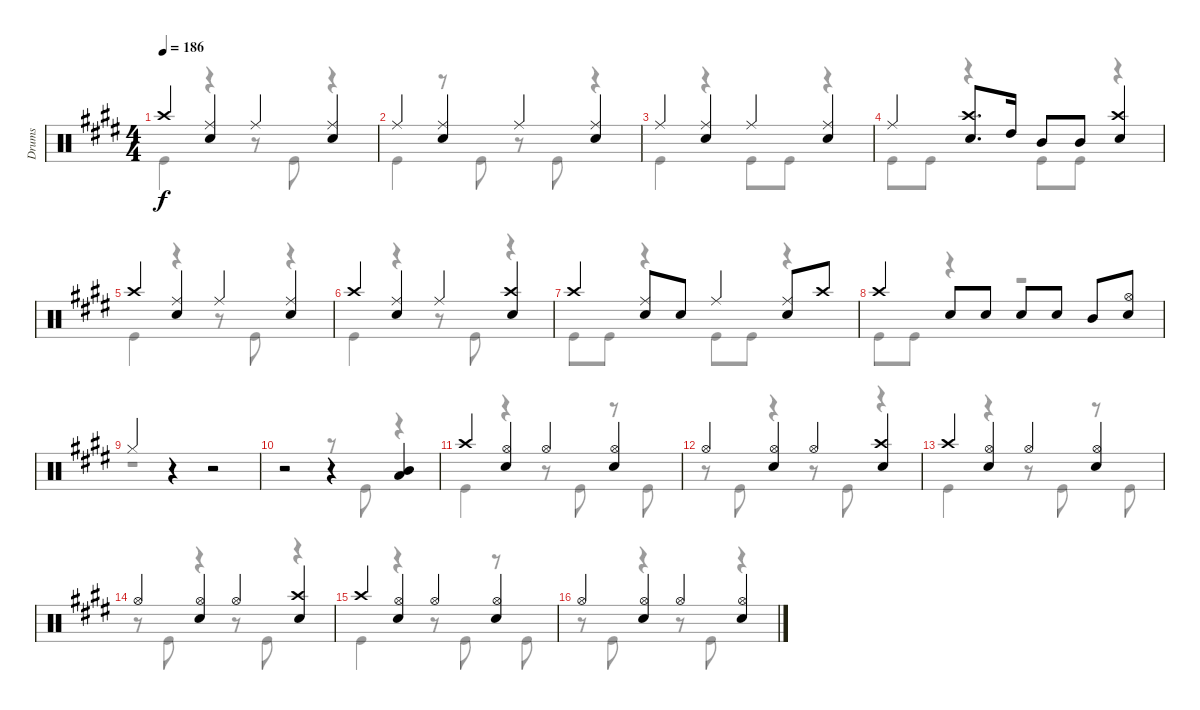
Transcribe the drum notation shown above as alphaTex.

\track ("Drums" "Drums") {instrument percussion}
\staff {score}
\articulation defaults
\voice
\ts (4 4)
\tempo 186
\clef neutral
\ks e "Crash high (hit)".4{dy f beam Up}
("Ride (middle)" "Snare (hit) 2").4{beam Up} "Ride (middle)".4{beam Up} ("Ride (middle)" "Snare (hit) 2").4{beam Up} |
"Ride (middle)".4{beam Up} ("Ride (middle)" "Snare (hit) 2").4{beam Up} "Ride (middle)".4{beam Up} ("Ride (middle)" "Snare (hit) 2").4{beam Up} |
"Ride (middle)".4{beam Up} ("Ride (middle)" "Snare (hit) 2").4{beam Up} "Ride (middle)".4{beam Up} ("Ride (middle)" "Snare (hit) 2").4{beam Up} |
"Ride (middle)".4{beam Up} ("Crash high (hit)" "Snare (hit) 2").8{d beam Up} "High Tom (hit)".16{beam Up} "Mid Tom (hit)".8{beam Up} "Mid Tom (hit)".8{beam Up} ("Crash high (hit)" "Snare (hit) 2").4{beam Up} |
"Crash high (hit)".4{beam Up} ("Ride (middle)" "Snare (hit) 2").4{beam Up} "Ride (middle)".4{beam Up} ("Ride (middle)" "Snare (hit) 2").4{beam Up} |
"Crash high (hit)".4{beam Up} ("Ride (middle)" "Snare (hit) 2").4{beam Up} "Ride (middle)".4{beam Up} ("Crash high (hit)" "Snare (hit) 2").4{beam Up} |
"Crash high (hit)".4{beam Up} ("Ride (middle)" "Snare (hit) 2").8{beam Up} "Snare (hit) 2".8{beam Up} "Ride (middle)".4{beam Up} ("Ride (middle)" "Snare (hit) 2").8{beam Up} "Crash high (hit)".8{beam Up} |
"Crash high (hit)".4{beam Up} "Snare (hit) 2".8{beam Up} "Snare (hit) 2".8{beam Up} "Snare (hit) 2".8{beam Up} "Snare (hit) 2".8{beam Up} "Mid Tom (hit)".8{beam Up} ("Snare (hit) 2" "Hi-Hat (open)").8{beam Up} |
"Hi-Hat (closed)".4{beam Up} r.4 r.2 |
r.2 r.4 ("Mid Tom (hit)" "Low Tom (hit)").4{beam Up} |
"Crash high (hit)".4{beam Up} ("Hi-Hat (open)" "Snare (hit) 2").4{beam Up} "Hi-Hat (open)".4{beam Up} ("Hi-Hat (open)" "Snare (hit) 2").4{beam Up} |
"Hi-Hat (open)".4{beam Up} ("Hi-Hat (open)" "Snare (hit) 2").4{beam Up} "Hi-Hat (open)".4{beam Up} ("Crash high (hit)" "Snare (hit) 2").4{beam Up} |
"Crash high (hit)".4{beam Up} ("Hi-Hat (open)" "Snare (hit) 2").4{beam Up} "Hi-Hat (open)".4{beam Up} ("Hi-Hat (open)" "Snare (hit) 2").4{beam Up} |
"Hi-Hat (open)".4{beam Up} ("Hi-Hat (open)" "Snare (hit) 2").4{beam Up} "Hi-Hat (open)".4{beam Up} ("Crash high (hit)" "Snare (hit) 2").4{beam Up} |
"Crash high (hit)".4{beam Up} ("Hi-Hat (open)" "Snare (hit) 2").4{beam Up} "Hi-Hat (open)".4{beam Up} ("Hi-Hat (open)" "Snare (hit) 2").4{beam Up} |
"Hi-Hat (open)".4{beam Up} ("Hi-Hat (open)" "Snare (hit) 2").4{beam Up} "Hi-Hat (open)".4{beam Up} ("Hi-Hat (open)" "Snare (hit) 2").4{beam Up}
\voice
\clef neutral
\ottava regular
\simile none
\ks e "Kick (hit)".4{dy f}
r.4 r.8 "Kick (hit)".8 r.4 |
"Kick (hit)".4 r.8 "Kick (hit)".8 r.8 "Kick (hit)".8 r.4 |
"Kick (hit)".4 r.4 "Kick (hit)".8 "Kick (hit)".8 r.4 |
"Kick (hit)".8 "Kick (hit)".8 r.4 "Kick (hit)".8 "Kick (hit)".8 r.4 |
"Kick (hit)".4 r.4 r.8 "Kick (hit)".8 r.4 |
"Kick (hit)".4 r.4 r.8 "Kick (hit)".8 r.4 |
"Kick (hit)".8 "Kick (hit)".8 r.4 "Kick (hit)".8 "Kick (hit)".8 r.4 |
"Kick (hit)".8 "Kick (hit)".8 r.4 r.2 |
r.1 |
r.2 r.8 "Kick (hit)".8 r.4 |
"Kick (hit)".4 r.4 r.8 "Kick (hit)".8 r.8 "Kick (hit)".8 |
r.8 "Kick (hit)".8 r.4 r.8 "Kick (hit)".8 r.4 |
"Kick (hit)".4 r.4 r.8 "Kick (hit)".8 r.8 "Kick (hit)".8 |
r.8 "Kick (hit)".8 r.4 r.8 "Kick (hit)".8 r.4 |
"Kick (hit)".4 r.4 r.8 "Kick (hit)".8 r.8 "Kick (hit)".8 |
r.8 "Kick (hit)".8 r.4 r.8 "Kick (hit)".8 r.4
